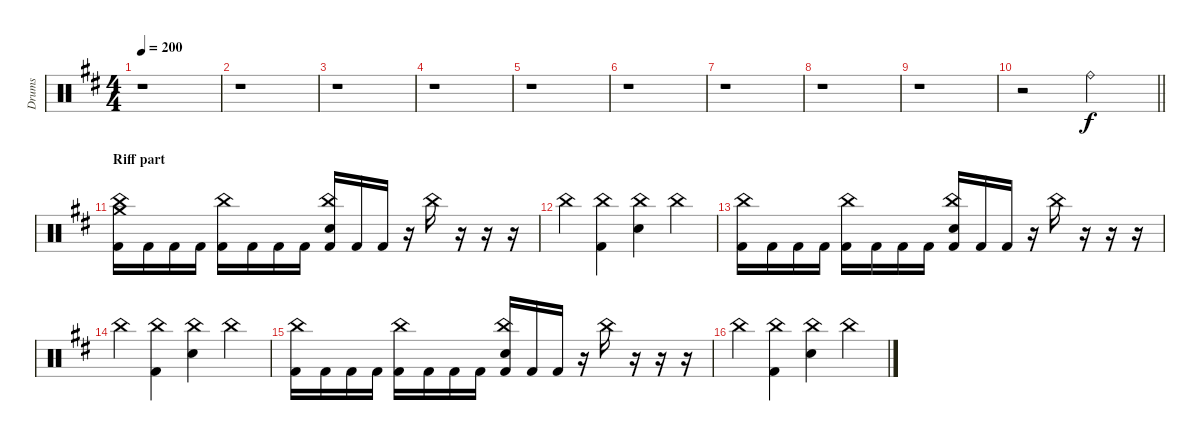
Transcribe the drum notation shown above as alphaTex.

\track ("Drums" "Drums") {instrument percussion}
\staff {score}
\articulation defaults
\ts (4 4)
\tempo 200
\clef neutral
\ks bminor
r.1{dy f} |
r.1 |
r.1 |
r.1 |
r.1 |
r.1 |
r.1 |
r.1 |
r.1 |
\barLineRight lightlight
r.2 "Ride (bell)".2 |
\section ("" "Riff part")
("Kick (hit) 2" "Crash medium (hit)" "China (hit)").16 "Kick (hit) 2".16 "Kick (hit) 2".16 "Kick (hit) 2".16 ("Kick (hit) 2" "China (hit)").16 "Kick (hit) 2".16 "Kick (hit) 2".16 "Kick (hit) 2".16 ("Kick (hit) 2" "Electric Snare (hit)" "China (hit)").16 "Kick (hit) 2".16 "Kick (hit) 2".16 r.16 "China (hit)".16 r.16 r.16 r.16 |
"China (hit)".4 ("Kick (hit) 2" "China (hit)").4 ("Electric Snare (hit)" "China (hit)").4 "China (hit)".4 |
("Kick (hit) 2" "China (hit)").16 "Kick (hit) 2".16 "Kick (hit) 2".16 "Kick (hit) 2".16 ("Kick (hit) 2" "China (hit)").16 "Kick (hit) 2".16 "Kick (hit) 2".16 "Kick (hit) 2".16 ("Kick (hit) 2" "Electric Snare (hit)" "China (hit)").16 "Kick (hit) 2".16 "Kick (hit) 2".16 r.16 "China (hit)".16 r.16 r.16 r.16 |
"China (hit)".4 ("Kick (hit) 2" "China (hit)").4 ("Electric Snare (hit)" "China (hit)").4 "China (hit)".4 |
("Kick (hit) 2" "China (hit)").16 "Kick (hit) 2".16 "Kick (hit) 2".16 "Kick (hit) 2".16 ("Kick (hit) 2" "China (hit)").16 "Kick (hit) 2".16 "Kick (hit) 2".16 "Kick (hit) 2".16 ("Kick (hit) 2" "Electric Snare (hit)" "China (hit)").16 "Kick (hit) 2".16 "Kick (hit) 2".16 r.16 "China (hit)".16 r.16 r.16 r.16 |
"China (hit)".4 ("Kick (hit) 2" "China (hit)").4 ("Electric Snare (hit)" "China (hit)").4 "China (hit)".4
